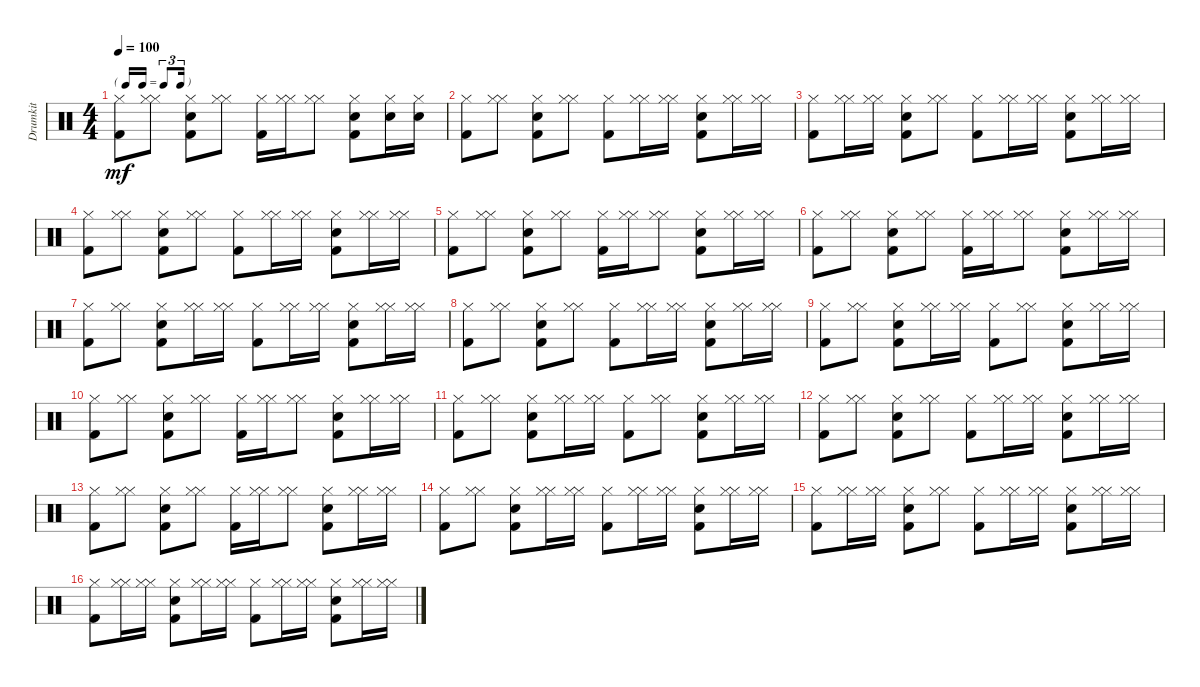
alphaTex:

\track ("Drumkit" "Drumkit") {instrument percussion}
\staff {score}
\articulation defaults
\ts (4 4)
\tf triplet16th
\tempo 100
\clef neutral
\ks c
("Hi-Hat (closed)" "Kick (hit) 2").8{dy mf} ("Hi-Hat (closed)" "Hi-Hat (closed)").8 ("Snare (hit) 2" "Hi-Hat (closed)" "Kick (hit) 2").8 ("Hi-Hat (closed)" "Hi-Hat (closed)").8 ("Hi-Hat (closed)" "Kick (hit) 2").16 ("Hi-Hat (closed)" "Hi-Hat (closed)").16 ("Hi-Hat (closed)" "Hi-Hat (closed)").8 ("Hi-Hat (closed)" "Snare (hit) 2" "Kick (hit) 2").8 ("Snare (hit) 2" "Hi-Hat (closed)").16 ("Snare (hit) 2" "Hi-Hat (closed)").16 |
("Hi-Hat (closed)" "Kick (hit) 2").8 ("Hi-Hat (closed)" "Hi-Hat (closed)").8 ("Snare (hit) 2" "Hi-Hat (closed)" "Kick (hit) 2").8 ("Hi-Hat (closed)" "Hi-Hat (closed)").8 ("Hi-Hat (closed)" "Kick (hit) 2").8 ("Hi-Hat (closed)" "Hi-Hat (closed)").16 ("Hi-Hat (closed)" "Hi-Hat (closed)").16 ("Snare (hit) 2" "Hi-Hat (closed)" "Kick (hit) 2").8 ("Hi-Hat (closed)" "Hi-Hat (closed)").16 ("Hi-Hat (closed)" "Hi-Hat (closed)").16 |
("Hi-Hat (closed)" "Kick (hit) 2").8 ("Hi-Hat (closed)" "Hi-Hat (closed)").16 ("Hi-Hat (closed)" "Hi-Hat (closed)").16 ("Snare (hit) 2" "Hi-Hat (closed)" "Kick (hit) 2").8 ("Hi-Hat (closed)" "Hi-Hat (closed)").8 ("Hi-Hat (closed)" "Kick (hit) 2").8 ("Hi-Hat (closed)" "Hi-Hat (closed)").16 ("Hi-Hat (closed)" "Hi-Hat (closed)").16 ("Snare (hit) 2" "Hi-Hat (closed)" "Kick (hit) 2").8 ("Hi-Hat (closed)" "Hi-Hat (closed)").16 ("Hi-Hat (closed)" "Hi-Hat (closed)").16 |
("Hi-Hat (closed)" "Kick (hit) 2").8 ("Hi-Hat (closed)" "Hi-Hat (closed)").8 ("Snare (hit) 2" "Hi-Hat (closed)" "Kick (hit) 2").8 ("Hi-Hat (closed)" "Hi-Hat (closed)").8 ("Hi-Hat (closed)" "Kick (hit) 2").8 ("Hi-Hat (closed)" "Hi-Hat (closed)").16 ("Hi-Hat (closed)" "Hi-Hat (closed)").16 ("Snare (hit) 2" "Hi-Hat (closed)" "Kick (hit) 2").8 ("Hi-Hat (closed)" "Hi-Hat (closed)").16 ("Hi-Hat (closed)" "Hi-Hat (closed)").16 |
("Hi-Hat (closed)" "Kick (hit) 2").8 ("Hi-Hat (closed)" "Hi-Hat (closed)").8 ("Snare (hit) 2" "Hi-Hat (closed)" "Kick (hit) 2").8 ("Hi-Hat (closed)" "Hi-Hat (closed)").8 ("Hi-Hat (closed)" "Kick (hit) 2").16 ("Hi-Hat (closed)" "Hi-Hat (closed)").16 ("Hi-Hat (closed)" "Hi-Hat (closed)").8 ("Snare (hit) 2" "Hi-Hat (closed)" "Kick (hit) 2").8 ("Hi-Hat (closed)" "Hi-Hat (closed)").16 ("Hi-Hat (closed)" "Hi-Hat (closed)").16 |
("Hi-Hat (closed)" "Kick (hit) 2").8 ("Hi-Hat (closed)" "Hi-Hat (closed)").8 ("Snare (hit) 2" "Hi-Hat (closed)" "Kick (hit) 2").8 ("Hi-Hat (closed)" "Hi-Hat (closed)").8 ("Hi-Hat (closed)" "Kick (hit) 2").16 ("Hi-Hat (closed)" "Hi-Hat (closed)").16 ("Hi-Hat (closed)" "Hi-Hat (closed)").8 ("Snare (hit) 2" "Hi-Hat (closed)" "Kick (hit) 2").8 ("Hi-Hat (closed)" "Hi-Hat (closed)").16 ("Hi-Hat (closed)" "Hi-Hat (closed)").16 |
("Hi-Hat (closed)" "Kick (hit) 2").8 ("Hi-Hat (closed)" "Hi-Hat (closed)").8 ("Snare (hit) 2" "Hi-Hat (closed)" "Kick (hit) 2").8 ("Hi-Hat (closed)" "Hi-Hat (closed)").16 ("Hi-Hat (closed)" "Hi-Hat (closed)").16 ("Hi-Hat (closed)" "Kick (hit) 2").8 ("Hi-Hat (closed)" "Hi-Hat (closed)").16 ("Hi-Hat (closed)" "Hi-Hat (closed)").16 ("Snare (hit) 2" "Hi-Hat (closed)" "Kick (hit) 2").8 ("Hi-Hat (closed)" "Hi-Hat (closed)").16 ("Hi-Hat (closed)" "Hi-Hat (closed)").16 |
("Hi-Hat (closed)" "Kick (hit) 2").8 ("Hi-Hat (closed)" "Hi-Hat (closed)").8 ("Snare (hit) 2" "Hi-Hat (closed)" "Kick (hit) 2").8 ("Hi-Hat (closed)" "Hi-Hat (closed)").8 ("Hi-Hat (closed)" "Kick (hit) 2").8 ("Hi-Hat (closed)" "Hi-Hat (closed)").16 ("Hi-Hat (closed)" "Hi-Hat (closed)").16 ("Snare (hit) 2" "Hi-Hat (closed)" "Kick (hit) 2").8 ("Hi-Hat (closed)" "Hi-Hat (closed)").16 ("Hi-Hat (closed)" "Hi-Hat (closed)").16 |
("Hi-Hat (closed)" "Kick (hit) 2").8 ("Hi-Hat (closed)" "Hi-Hat (closed)").8 ("Snare (hit) 2" "Hi-Hat (closed)" "Kick (hit) 2").8 ("Hi-Hat (closed)" "Hi-Hat (closed)").16 ("Hi-Hat (closed)" "Hi-Hat (closed)").16 ("Hi-Hat (closed)" "Kick (hit) 2").8 ("Hi-Hat (closed)" "Hi-Hat (closed)").8 ("Snare (hit) 2" "Hi-Hat (closed)" "Kick (hit) 2").8 ("Hi-Hat (closed)" "Hi-Hat (closed)").16 ("Hi-Hat (closed)" "Hi-Hat (closed)").16 |
("Hi-Hat (closed)" "Kick (hit) 2").8 ("Hi-Hat (closed)" "Hi-Hat (closed)").8 ("Snare (hit) 2" "Hi-Hat (closed)" "Kick (hit) 2").8 ("Hi-Hat (closed)" "Hi-Hat (closed)").8 ("Hi-Hat (closed)" "Kick (hit) 2").16 ("Hi-Hat (closed)" "Hi-Hat (closed)").16 ("Hi-Hat (closed)" "Hi-Hat (closed)").8 ("Snare (hit) 2" "Hi-Hat (closed)" "Kick (hit) 2").8 ("Hi-Hat (closed)" "Hi-Hat (closed)").16 ("Hi-Hat (closed)" "Hi-Hat (closed)").16 |
("Hi-Hat (closed)" "Kick (hit) 2").8 ("Hi-Hat (closed)" "Hi-Hat (closed)").8 ("Snare (hit) 2" "Hi-Hat (closed)" "Kick (hit) 2").8 ("Hi-Hat (closed)" "Hi-Hat (closed)").16 ("Hi-Hat (closed)" "Hi-Hat (closed)").16 ("Hi-Hat (closed)" "Kick (hit) 2").8 ("Hi-Hat (closed)" "Hi-Hat (closed)").8 ("Snare (hit) 2" "Hi-Hat (closed)" "Kick (hit) 2").8 ("Hi-Hat (closed)" "Hi-Hat (closed)").16 ("Hi-Hat (closed)" "Hi-Hat (closed)").16 |
("Hi-Hat (closed)" "Kick (hit) 2").8 ("Hi-Hat (closed)" "Hi-Hat (closed)").8 ("Snare (hit) 2" "Hi-Hat (closed)" "Kick (hit) 2").8 ("Hi-Hat (closed)" "Hi-Hat (closed)").8 ("Hi-Hat (closed)" "Kick (hit) 2").8 ("Hi-Hat (closed)" "Hi-Hat (closed)").16 ("Hi-Hat (closed)" "Hi-Hat (closed)").16 ("Snare (hit) 2" "Hi-Hat (closed)" "Kick (hit) 2").8 ("Hi-Hat (closed)" "Hi-Hat (closed)").16 ("Hi-Hat (closed)" "Hi-Hat (closed)").16 |
("Hi-Hat (closed)" "Kick (hit) 2").8 ("Hi-Hat (closed)" "Hi-Hat (closed)").8 ("Snare (hit) 2" "Hi-Hat (closed)" "Kick (hit) 2").8 ("Hi-Hat (closed)" "Hi-Hat (closed)").8 ("Hi-Hat (closed)" "Kick (hit) 2").16 ("Hi-Hat (closed)" "Hi-Hat (closed)").16 ("Hi-Hat (closed)" "Hi-Hat (closed)").8 ("Snare (hit) 2" "Hi-Hat (closed)" "Kick (hit) 2").8 ("Hi-Hat (closed)" "Hi-Hat (closed)").16 ("Hi-Hat (closed)" "Hi-Hat (closed)").16 |
("Hi-Hat (closed)" "Kick (hit) 2").8 ("Hi-Hat (closed)" "Hi-Hat (closed)").8 ("Snare (hit) 2" "Hi-Hat (closed)" "Kick (hit) 2").8 ("Hi-Hat (closed)" "Hi-Hat (closed)").16 ("Hi-Hat (closed)" "Hi-Hat (closed)").16 ("Hi-Hat (closed)" "Kick (hit) 2").8 ("Hi-Hat (closed)" "Hi-Hat (closed)").16 ("Hi-Hat (closed)" "Hi-Hat (closed)").16 ("Snare (hit) 2" "Hi-Hat (closed)" "Kick (hit) 2").8 ("Hi-Hat (closed)" "Hi-Hat (closed)").16 ("Hi-Hat (closed)" "Hi-Hat (closed)").16 |
("Hi-Hat (closed)" "Kick (hit) 2").8 ("Hi-Hat (closed)" "Hi-Hat (closed)").16 ("Hi-Hat (closed)" "Hi-Hat (closed)").16 ("Snare (hit) 2" "Hi-Hat (closed)" "Kick (hit) 2").8 ("Hi-Hat (closed)" "Hi-Hat (closed)").8 ("Hi-Hat (closed)" "Kick (hit) 2").8 ("Hi-Hat (closed)" "Hi-Hat (closed)").16 ("Hi-Hat (closed)" "Hi-Hat (closed)").16 ("Snare (hit) 2" "Hi-Hat (closed)" "Kick (hit) 2").8 ("Hi-Hat (closed)" "Hi-Hat (closed)").16 ("Hi-Hat (closed)" "Hi-Hat (closed)").16 |
("Hi-Hat (closed)" "Kick (hit) 2").8 ("Hi-Hat (closed)" "Hi-Hat (closed)").16 ("Hi-Hat (closed)" "Hi-Hat (closed)").16 ("Snare (hit) 2" "Hi-Hat (closed)" "Kick (hit) 2").8 ("Hi-Hat (closed)" "Hi-Hat (closed)").16 ("Hi-Hat (closed)" "Hi-Hat (closed)").16 ("Hi-Hat (closed)" "Kick (hit) 2").8 ("Hi-Hat (closed)" "Hi-Hat (closed)").16 ("Hi-Hat (closed)" "Hi-Hat (closed)").16 ("Snare (hit) 2" "Hi-Hat (closed)" "Kick (hit) 2").8 ("Hi-Hat (closed)" "Hi-Hat (closed)").16 ("Hi-Hat (closed)" "Hi-Hat (closed)").16
